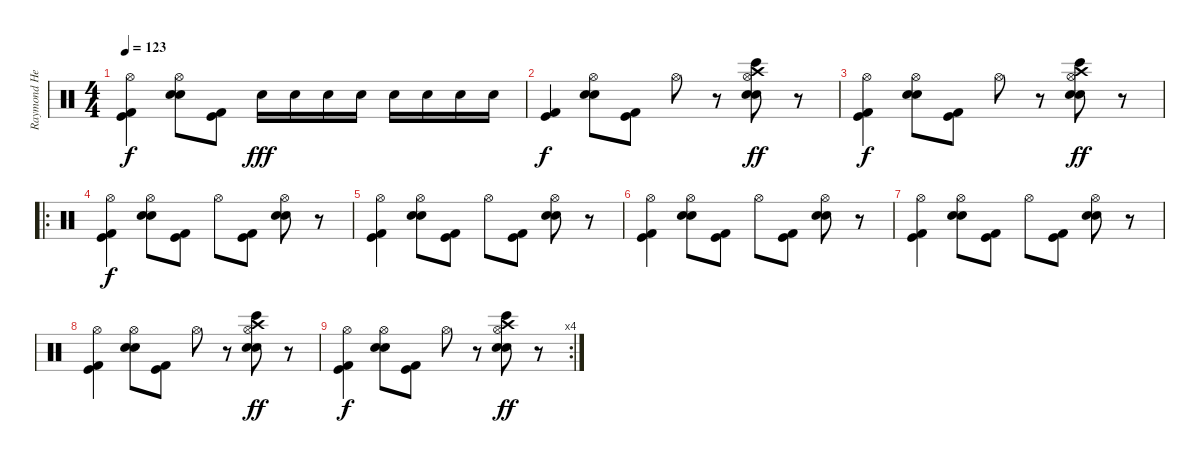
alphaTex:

\track ("Raymond Herrera" "Raymond He") {instrument percussion}
\staff {score}
\articulation defaults
\ts (4 4)
\tempo 123
\clef neutral
\ks c
("Hi-Hat (open)" "Kick (hit)" "Kick (hit) 2").4{dy f} ("Hi-Hat (open)" "Electric Snare (hit)" "Electric Snare (hit)").8 ("Kick (hit)" "Kick (hit) 2").8 "Electric Snare (hit)".16{dy fff} "Electric Snare (hit)".16 "Electric Snare (hit)".16 "Electric Snare (hit)".16 "Electric Snare (hit)".16 "Electric Snare (hit)".16 "Electric Snare (hit)".16 "Electric Snare (hit)".16 |
("Kick (hit)" "Kick (hit) 2").4{dy f} ("Hi-Hat (open)" "Electric Snare (hit)" "Electric Snare (hit)").8 ("Kick (hit)" "Kick (hit) 2").8 "Hi-Hat (open)".8 r.8 ("Hi-Hat (open)" "Crash high (hit)" "Electric Snare (hit)" "Electric Snare (hit)" "Bongo High (hit)").8{dy ff} r.8 |
("Hi-Hat (open)" "Kick (hit)" "Kick (hit) 2").4{dy f} ("Hi-Hat (open)" "Electric Snare (hit)" "Electric Snare (hit)").8 ("Kick (hit)" "Kick (hit) 2").8 "Hi-Hat (open)".8 r.8 ("Hi-Hat (open)" "Crash high (hit)" "Electric Snare (hit)" "Electric Snare (hit)" "Bongo High (hit)").8{dy ff} r.8 |
\ro
("Hi-Hat (open)" "Kick (hit)" "Kick (hit) 2").4{dy f} ("Hi-Hat (open)" "Electric Snare (hit)" "Electric Snare (hit)").8 ("Kick (hit)" "Kick (hit) 2").8 "Hi-Hat (open)".8 ("Kick (hit) 2" "Kick (hit)").8 ("Hi-Hat (open)" "Electric Snare (hit)" "Electric Snare (hit)").8 r.8 |
("Hi-Hat (open)" "Kick (hit)" "Kick (hit) 2").4 ("Hi-Hat (open)" "Electric Snare (hit)" "Electric Snare (hit)").8 ("Kick (hit)" "Kick (hit) 2").8 "Hi-Hat (open)".8 ("Kick (hit) 2" "Kick (hit)").8 ("Hi-Hat (open)" "Electric Snare (hit)" "Electric Snare (hit)").8 r.8 |
("Hi-Hat (open)" "Kick (hit)" "Kick (hit) 2").4 ("Hi-Hat (open)" "Electric Snare (hit)" "Electric Snare (hit)").8 ("Kick (hit)" "Kick (hit) 2").8 "Hi-Hat (open)".8 ("Kick (hit) 2" "Kick (hit)").8 ("Hi-Hat (open)" "Electric Snare (hit)" "Electric Snare (hit)").8 r.8 |
("Hi-Hat (open)" "Kick (hit)" "Kick (hit) 2").4 ("Hi-Hat (open)" "Electric Snare (hit)" "Electric Snare (hit)").8 ("Kick (hit)" "Kick (hit) 2").8 "Hi-Hat (open)".8 ("Kick (hit) 2" "Kick (hit)").8 ("Hi-Hat (open)" "Electric Snare (hit)" "Electric Snare (hit)").8 r.8 |
("Hi-Hat (open)" "Kick (hit)" "Kick (hit) 2").4 ("Hi-Hat (open)" "Electric Snare (hit)" "Electric Snare (hit)").8 ("Kick (hit)" "Kick (hit) 2").8 "Hi-Hat (open)".8 r.8 ("Hi-Hat (open)" "Crash high (hit)" "Electric Snare (hit)" "Electric Snare (hit)" "Bongo High (hit)").8{dy ff} r.8 |
\rc 4
("Hi-Hat (open)" "Kick (hit)" "Kick (hit) 2").4{dy f} ("Hi-Hat (open)" "Electric Snare (hit)" "Electric Snare (hit)").8 ("Kick (hit)" "Kick (hit) 2").8 "Hi-Hat (open)".8 r.8 ("Hi-Hat (open)" "Crash high (hit)" "Electric Snare (hit)" "Electric Snare (hit)" "Bongo High (hit)").8{dy ff} r.8
